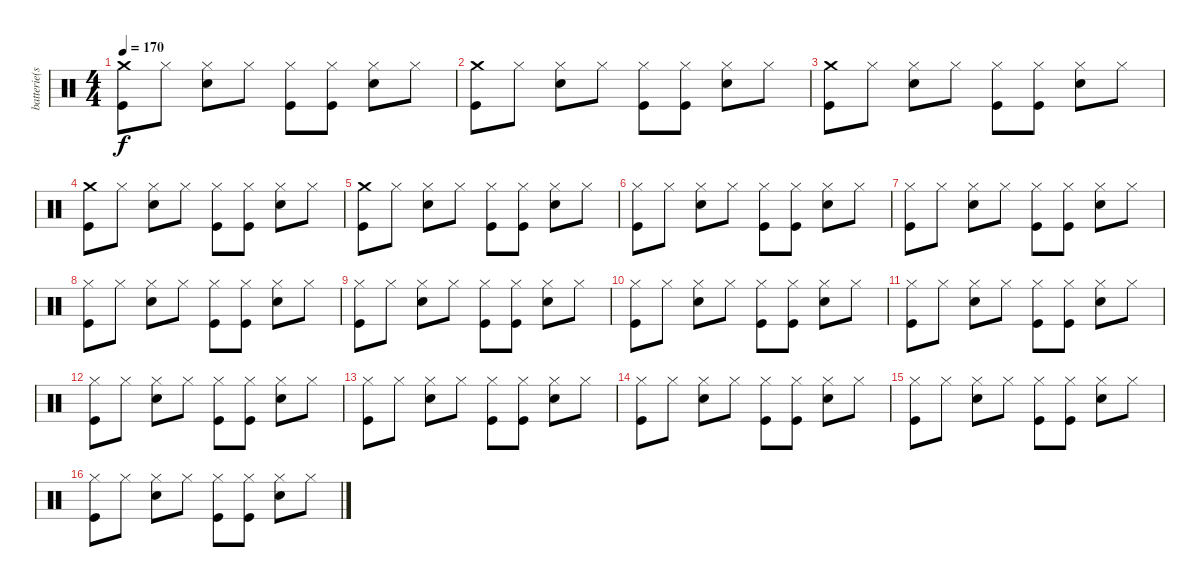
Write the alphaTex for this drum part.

\track ("batterie(steve)" "batterie(s") {instrument percussion}
\staff {score}
\articulation defaults
\ts (4 4)
\tempo 170
\clef neutral
\ks c
("Crash medium (hit)" "Kick (hit)").8{dy f} "Hi-Hat (closed)".8 ("Hi-Hat (closed)" "Snare (hit) 2").8 "Hi-Hat (closed)".8 ("Hi-Hat (closed)" "Kick (hit)").8 ("Hi-Hat (closed)" "Kick (hit)").8 ("Hi-Hat (closed)" "Snare (hit) 2").8 "Hi-Hat (closed)".8 |
("Crash medium (hit)" "Kick (hit)").8 "Hi-Hat (closed)".8 ("Hi-Hat (closed)" "Snare (hit) 2").8 "Hi-Hat (closed)".8 ("Hi-Hat (closed)" "Kick (hit)").8 ("Hi-Hat (closed)" "Kick (hit)").8 ("Hi-Hat (closed)" "Snare (hit) 2").8 "Hi-Hat (closed)".8 |
("Crash medium (hit)" "Kick (hit)").8 "Hi-Hat (closed)".8 ("Hi-Hat (closed)" "Snare (hit) 2").8 "Hi-Hat (closed)".8 ("Hi-Hat (closed)" "Kick (hit)").8 ("Hi-Hat (closed)" "Kick (hit)").8 ("Hi-Hat (closed)" "Snare (hit) 2").8 "Hi-Hat (closed)".8 |
("Crash medium (hit)" "Kick (hit)").8 "Hi-Hat (closed)".8 ("Hi-Hat (closed)" "Snare (hit) 2").8 "Hi-Hat (closed)".8 ("Hi-Hat (closed)" "Kick (hit)").8 ("Hi-Hat (closed)" "Kick (hit)").8 ("Hi-Hat (closed)" "Snare (hit) 2").8 "Hi-Hat (closed)".8 |
("Crash medium (hit)" "Kick (hit)").8 "Hi-Hat (closed)".8 ("Hi-Hat (closed)" "Snare (hit) 2").8 "Hi-Hat (closed)".8 ("Hi-Hat (closed)" "Kick (hit)").8 ("Hi-Hat (closed)" "Kick (hit)").8 ("Hi-Hat (closed)" "Snare (hit) 2").8 "Hi-Hat (closed)".8 |
("Hi-Hat (closed)" "Kick (hit)").8 "Hi-Hat (closed)".8 ("Hi-Hat (closed)" "Snare (hit) 2").8 "Hi-Hat (closed)".8 ("Hi-Hat (closed)" "Kick (hit)").8 ("Hi-Hat (closed)" "Kick (hit)").8 ("Hi-Hat (closed)" "Snare (hit) 2").8 "Hi-Hat (closed)".8 |
("Hi-Hat (closed)" "Kick (hit)").8 "Hi-Hat (closed)".8 ("Hi-Hat (closed)" "Snare (hit) 2").8 "Hi-Hat (closed)".8 ("Hi-Hat (closed)" "Kick (hit)").8 ("Hi-Hat (closed)" "Kick (hit)").8 ("Hi-Hat (closed)" "Snare (hit) 2").8 "Hi-Hat (closed)".8 |
("Hi-Hat (closed)" "Kick (hit)").8 "Hi-Hat (closed)".8 ("Hi-Hat (closed)" "Snare (hit) 2").8 "Hi-Hat (closed)".8 ("Hi-Hat (closed)" "Kick (hit)").8 ("Hi-Hat (closed)" "Kick (hit)").8 ("Hi-Hat (closed)" "Snare (hit) 2").8 "Hi-Hat (closed)".8 |
("Hi-Hat (closed)" "Kick (hit)").8 "Hi-Hat (closed)".8 ("Hi-Hat (closed)" "Snare (hit) 2").8 "Hi-Hat (closed)".8 ("Hi-Hat (closed)" "Kick (hit)").8 ("Hi-Hat (closed)" "Kick (hit)").8 ("Hi-Hat (closed)" "Snare (hit) 2").8 "Hi-Hat (closed)".8 |
("Hi-Hat (closed)" "Kick (hit)").8 "Hi-Hat (closed)".8 ("Hi-Hat (closed)" "Snare (hit) 2").8 "Hi-Hat (closed)".8 ("Hi-Hat (closed)" "Kick (hit)").8 ("Hi-Hat (closed)" "Kick (hit)").8 ("Hi-Hat (closed)" "Snare (hit) 2").8 "Hi-Hat (closed)".8 |
("Hi-Hat (closed)" "Kick (hit)").8 "Hi-Hat (closed)".8 ("Hi-Hat (closed)" "Snare (hit) 2").8 "Hi-Hat (closed)".8 ("Hi-Hat (closed)" "Kick (hit)").8 ("Hi-Hat (closed)" "Kick (hit)").8 ("Hi-Hat (closed)" "Snare (hit) 2").8 "Hi-Hat (closed)".8 |
("Hi-Hat (closed)" "Kick (hit)").8 "Hi-Hat (closed)".8 ("Hi-Hat (closed)" "Snare (hit) 2").8 "Hi-Hat (closed)".8 ("Hi-Hat (closed)" "Kick (hit)").8 ("Hi-Hat (closed)" "Kick (hit)").8 ("Hi-Hat (closed)" "Snare (hit) 2").8 "Hi-Hat (closed)".8 |
("Hi-Hat (closed)" "Kick (hit)").8 "Hi-Hat (closed)".8 ("Hi-Hat (closed)" "Snare (hit) 2").8 "Hi-Hat (closed)".8 ("Hi-Hat (closed)" "Kick (hit)").8 ("Hi-Hat (closed)" "Kick (hit)").8 ("Hi-Hat (closed)" "Snare (hit) 2").8 "Hi-Hat (closed)".8 |
("Hi-Hat (closed)" "Kick (hit)").8 "Hi-Hat (closed)".8 ("Hi-Hat (closed)" "Snare (hit) 2").8 "Hi-Hat (closed)".8 ("Hi-Hat (closed)" "Kick (hit)").8 ("Hi-Hat (closed)" "Kick (hit)").8 ("Hi-Hat (closed)" "Snare (hit) 2").8 "Hi-Hat (closed)".8 |
("Hi-Hat (closed)" "Kick (hit)").8 "Hi-Hat (closed)".8 ("Hi-Hat (closed)" "Snare (hit) 2").8 "Hi-Hat (closed)".8 ("Hi-Hat (closed)" "Kick (hit)").8 ("Hi-Hat (closed)" "Kick (hit)").8 ("Hi-Hat (closed)" "Snare (hit) 2").8 "Hi-Hat (closed)".8 |
("Hi-Hat (closed)" "Kick (hit)").8 "Hi-Hat (closed)".8 ("Hi-Hat (closed)" "Snare (hit) 2").8 "Hi-Hat (closed)".8 ("Hi-Hat (closed)" "Kick (hit)").8 ("Hi-Hat (closed)" "Kick (hit)").8 ("Hi-Hat (closed)" "Snare (hit) 2").8 "Hi-Hat (closed)".8
